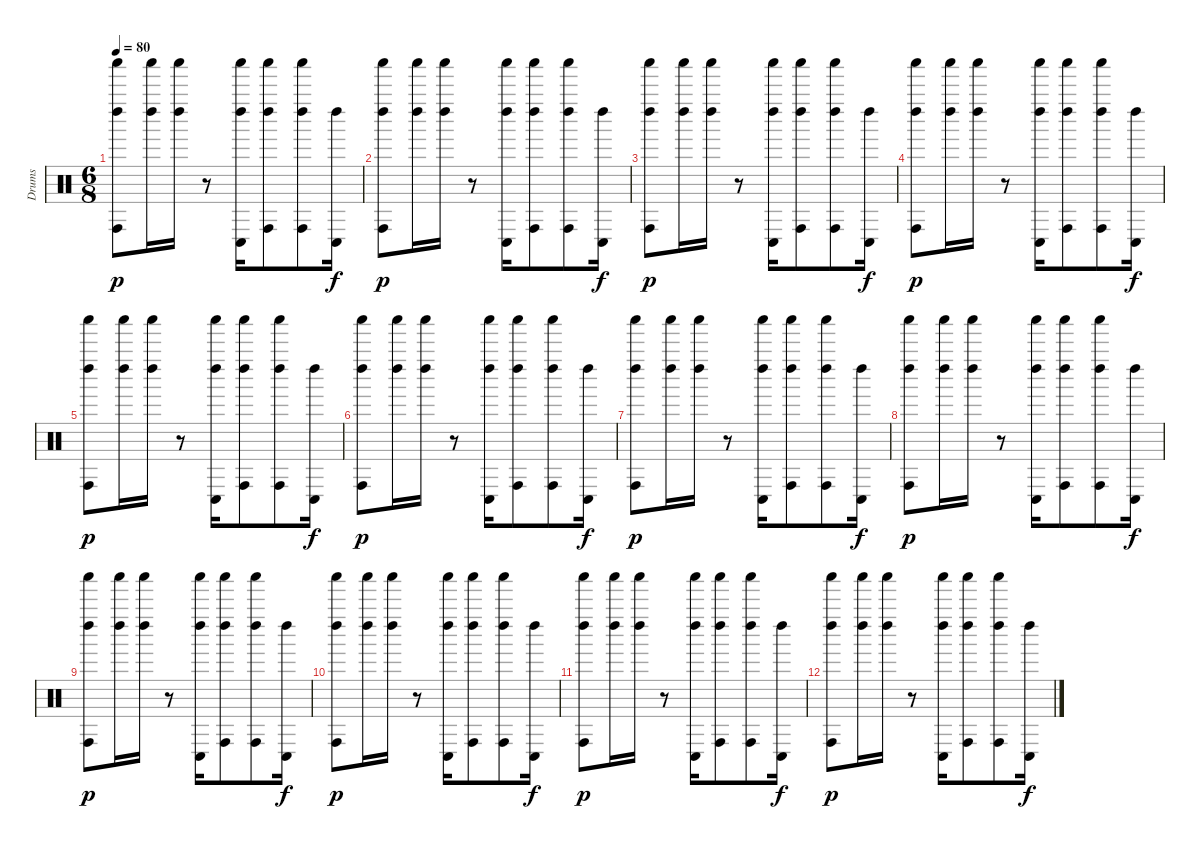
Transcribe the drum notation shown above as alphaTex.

\track ("Drums" "Drums") {instrument percussion}
\staff {score}
\articulation defaults
\ts (6 8)
\tempo 80
\clef neutral
\ks c
("Conga high (hit)" "Shaker (hit)" "Left Maraca (hit)").8{dy p balance 8} ("Shaker (hit)" "Left Maraca (hit)").16 ("Shaker (hit)" "Left Maraca (hit)").16 r.8 ("Conga low (hit)" "Shaker (hit)" "Left Maraca (hit)").16{balance 8} ("Conga high (hit)" "Shaker (hit)" "Left Maraca (hit)").8{balance 0} ("Conga high (hit)" "Shaker (hit)" "Left Maraca (hit)").8{balance 8} ("Conga low (hit)" "Left Maraca (hit)").16{dy f balance 0} |
("Conga high (hit)" "Shaker (hit)" "Left Maraca (hit)").8{dy p balance 8} ("Shaker (hit)" "Left Maraca (hit)").16 ("Shaker (hit)" "Left Maraca (hit)").16 r.8 ("Conga low (hit)" "Shaker (hit)" "Left Maraca (hit)").16{balance 8} ("Conga high (hit)" "Shaker (hit)" "Left Maraca (hit)").8{balance 16} ("Conga high (hit)" "Shaker (hit)" "Left Maraca (hit)").8{balance 8} ("Conga low (hit)" "Left Maraca (hit)").16{dy f balance 16} |
("Conga high (hit)" "Shaker (hit)" "Left Maraca (hit)").8{dy p balance 8} ("Shaker (hit)" "Left Maraca (hit)").16 ("Shaker (hit)" "Left Maraca (hit)").16 r.8 ("Conga low (hit)" "Shaker (hit)" "Left Maraca (hit)").16{balance 8} ("Conga high (hit)" "Shaker (hit)" "Left Maraca (hit)").8{balance 16} ("Conga high (hit)" "Shaker (hit)" "Left Maraca (hit)").8{balance 8} ("Conga low (hit)" "Left Maraca (hit)").16{dy f balance 16} |
("Conga high (hit)" "Shaker (hit)" "Left Maraca (hit)").8{dy p balance 8} ("Shaker (hit)" "Left Maraca (hit)").16 ("Shaker (hit)" "Left Maraca (hit)").16 r.8 ("Conga low (hit)" "Shaker (hit)" "Left Maraca (hit)").16{balance 8} ("Conga high (hit)" "Shaker (hit)" "Left Maraca (hit)").8{balance 0} ("Conga high (hit)" "Shaker (hit)" "Left Maraca (hit)").8{balance 8} ("Conga low (hit)" "Left Maraca (hit)").16{dy f balance 0} |
("Conga high (hit)" "Shaker (hit)" "Left Maraca (hit)").8{dy p balance 8} ("Shaker (hit)" "Left Maraca (hit)").16 ("Shaker (hit)" "Left Maraca (hit)").16 r.8 ("Conga low (hit)" "Shaker (hit)" "Left Maraca (hit)").16{balance 8} ("Conga high (hit)" "Shaker (hit)" "Left Maraca (hit)").8{balance 0} ("Conga high (hit)" "Shaker (hit)" "Left Maraca (hit)").8{balance 8} ("Conga low (hit)" "Left Maraca (hit)").16{dy f balance 0} |
("Conga high (hit)" "Shaker (hit)" "Left Maraca (hit)").8{dy p balance 8} ("Shaker (hit)" "Left Maraca (hit)").16 ("Shaker (hit)" "Left Maraca (hit)").16 r.8 ("Conga low (hit)" "Shaker (hit)" "Left Maraca (hit)").16{balance 8} ("Conga high (hit)" "Shaker (hit)" "Left Maraca (hit)").8{balance 16} ("Conga high (hit)" "Shaker (hit)" "Left Maraca (hit)").8{balance 8} ("Conga low (hit)" "Left Maraca (hit)").16{dy f balance 16} |
("Conga high (hit)" "Shaker (hit)" "Left Maraca (hit)").8{dy p balance 8} ("Shaker (hit)" "Left Maraca (hit)").16 ("Shaker (hit)" "Left Maraca (hit)").16 r.8 ("Conga low (hit)" "Shaker (hit)" "Left Maraca (hit)").16{balance 8} ("Conga high (hit)" "Shaker (hit)" "Left Maraca (hit)").8{balance 16} ("Conga high (hit)" "Shaker (hit)" "Left Maraca (hit)").8{balance 8} ("Conga low (hit)" "Left Maraca (hit)").16{dy f balance 16} |
("Conga high (hit)" "Shaker (hit)" "Left Maraca (hit)").8{dy p balance 8} ("Shaker (hit)" "Left Maraca (hit)").16 ("Shaker (hit)" "Left Maraca (hit)").16 r.8 ("Conga low (hit)" "Shaker (hit)" "Left Maraca (hit)").16{balance 8} ("Conga high (hit)" "Shaker (hit)" "Left Maraca (hit)").8{balance 0} ("Conga high (hit)" "Shaker (hit)" "Left Maraca (hit)").8{balance 8} ("Conga low (hit)" "Left Maraca (hit)").16{dy f balance 0} |
("Conga high (hit)" "Shaker (hit)" "Left Maraca (hit)").8{dy p balance 8} ("Shaker (hit)" "Left Maraca (hit)").16 ("Shaker (hit)" "Left Maraca (hit)").16 r.8 ("Conga low (hit)" "Shaker (hit)" "Left Maraca (hit)").16{balance 8} ("Conga high (hit)" "Shaker (hit)" "Left Maraca (hit)").8{balance 0} ("Conga high (hit)" "Shaker (hit)" "Left Maraca (hit)").8{balance 8} ("Conga low (hit)" "Left Maraca (hit)").16{dy f balance 0} |
("Conga high (hit)" "Shaker (hit)" "Left Maraca (hit)").8{dy p balance 8} ("Shaker (hit)" "Left Maraca (hit)").16 ("Shaker (hit)" "Left Maraca (hit)").16 r.8 ("Conga low (hit)" "Shaker (hit)" "Left Maraca (hit)").16{balance 8} ("Conga high (hit)" "Shaker (hit)" "Left Maraca (hit)").8{balance 16} ("Conga high (hit)" "Shaker (hit)" "Left Maraca (hit)").8{balance 8} ("Conga low (hit)" "Left Maraca (hit)").16{dy f balance 16} |
("Conga high (hit)" "Shaker (hit)" "Left Maraca (hit)").8{dy p balance 8} ("Shaker (hit)" "Left Maraca (hit)").16 ("Shaker (hit)" "Left Maraca (hit)").16 r.8 ("Conga low (hit)" "Shaker (hit)" "Left Maraca (hit)").16{balance 8} ("Conga high (hit)" "Shaker (hit)" "Left Maraca (hit)").8{balance 16} ("Conga high (hit)" "Shaker (hit)" "Left Maraca (hit)").8{balance 8} ("Conga low (hit)" "Left Maraca (hit)").16{dy f balance 16} |
("Conga high (hit)" "Shaker (hit)" "Left Maraca (hit)").8{dy p balance 8} ("Shaker (hit)" "Left Maraca (hit)").16 ("Shaker (hit)" "Left Maraca (hit)").16 r.8 ("Conga low (hit)" "Shaker (hit)" "Left Maraca (hit)").16{balance 8} ("Conga high (hit)" "Shaker (hit)" "Left Maraca (hit)").8{balance 0} ("Conga high (hit)" "Shaker (hit)" "Left Maraca (hit)").8{balance 8} ("Conga low (hit)" "Left Maraca (hit)").16{dy f balance 0}
